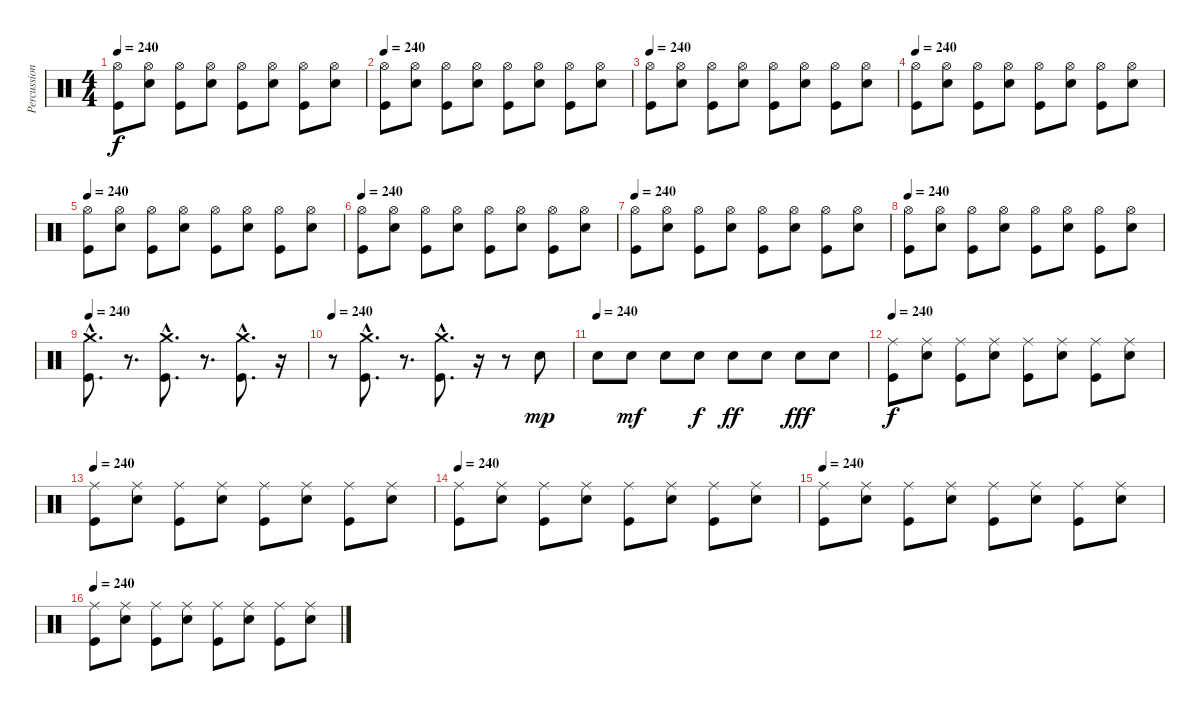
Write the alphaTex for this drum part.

\track ("Percussion" "Percussion") {instrument percussion}
\staff {score}
\articulation defaults
\ts (4 4)
\tempo 240
\clef neutral
\ks c
("Hi-Hat (open)" "Kick (hit)").8{dy f} ("Electric Snare (hit)" "Hi-Hat (open)").8 ("Hi-Hat (open)" "Kick (hit)").8 ("Electric Snare (hit)" "Hi-Hat (open)").8 ("Hi-Hat (open)" "Kick (hit)").8 ("Electric Snare (hit)" "Hi-Hat (open)").8 ("Hi-Hat (open)" "Kick (hit)").8 ("Electric Snare (hit)" "Hi-Hat (open)").8 |
\tempo 240
("Hi-Hat (open)" "Kick (hit)").8 ("Electric Snare (hit)" "Hi-Hat (open)").8 ("Hi-Hat (open)" "Kick (hit)").8 ("Electric Snare (hit)" "Hi-Hat (open)").8 ("Hi-Hat (open)" "Kick (hit)").8 ("Electric Snare (hit)" "Hi-Hat (open)").8 ("Hi-Hat (open)" "Kick (hit)").8 ("Electric Snare (hit)" "Hi-Hat (open)").8 |
\tempo 240
("Hi-Hat (open)" "Kick (hit)").8 ("Electric Snare (hit)" "Hi-Hat (open)").8 ("Hi-Hat (open)" "Kick (hit)").8 ("Electric Snare (hit)" "Hi-Hat (open)").8 ("Hi-Hat (open)" "Kick (hit)").8 ("Electric Snare (hit)" "Hi-Hat (open)").8 ("Hi-Hat (open)" "Kick (hit)").8 ("Electric Snare (hit)" "Hi-Hat (open)").8 |
\tempo 240
("Hi-Hat (open)" "Kick (hit)").8 ("Electric Snare (hit)" "Hi-Hat (open)").8 ("Hi-Hat (open)" "Kick (hit)").8 ("Electric Snare (hit)" "Hi-Hat (open)").8 ("Hi-Hat (open)" "Kick (hit)").8 ("Electric Snare (hit)" "Hi-Hat (open)").8 ("Hi-Hat (open)" "Kick (hit)").8 ("Electric Snare (hit)" "Hi-Hat (open)").8 |
\tempo 240
("Hi-Hat (open)" "Kick (hit)").8 ("Electric Snare (hit)" "Hi-Hat (open)").8 ("Hi-Hat (open)" "Kick (hit)").8 ("Electric Snare (hit)" "Hi-Hat (open)").8 ("Hi-Hat (open)" "Kick (hit)").8 ("Electric Snare (hit)" "Hi-Hat (open)").8 ("Hi-Hat (open)" "Kick (hit)").8 ("Electric Snare (hit)" "Hi-Hat (open)").8 |
\tempo 240
("Hi-Hat (open)" "Kick (hit)").8 ("Electric Snare (hit)" "Hi-Hat (open)").8 ("Hi-Hat (open)" "Kick (hit)").8 ("Electric Snare (hit)" "Hi-Hat (open)").8 ("Hi-Hat (open)" "Kick (hit)").8 ("Electric Snare (hit)" "Hi-Hat (open)").8 ("Hi-Hat (open)" "Kick (hit)").8 ("Electric Snare (hit)" "Hi-Hat (open)").8 |
\tempo 240
("Hi-Hat (open)" "Kick (hit)").8 ("Electric Snare (hit)" "Hi-Hat (open)").8 ("Hi-Hat (open)" "Kick (hit)").8 ("Electric Snare (hit)" "Hi-Hat (open)").8 ("Hi-Hat (open)" "Kick (hit)").8 ("Electric Snare (hit)" "Hi-Hat (open)").8 ("Hi-Hat (open)" "Kick (hit)").8 ("Electric Snare (hit)" "Hi-Hat (open)").8 |
\tempo 240
("Hi-Hat (open)" "Kick (hit)").8 ("Electric Snare (hit)" "Hi-Hat (open)").8 ("Hi-Hat (open)" "Kick (hit)").8 ("Electric Snare (hit)" "Hi-Hat (open)").8 ("Hi-Hat (open)" "Kick (hit)").8 ("Electric Snare (hit)" "Hi-Hat (open)").8 ("Hi-Hat (open)" "Kick (hit)").8 ("Electric Snare (hit)" "Hi-Hat (open)").8 |
\tempo 240
("Crash medium (hit)"{hac} "Kick (hit)"{hac}).8{d} r.8{d} ("Crash medium (hit)"{hac} "Kick (hit)"{hac}).8{d} r.8{d} ("Crash medium (hit)"{hac} "Kick (hit)"{hac}).8{d} r.16 |
\tempo 240
r.8 ("Crash medium (hit)"{hac} "Kick (hit)"{hac}).8{d} r.8{d} ("Crash medium (hit)"{hac} "Kick (hit)"{hac}).8{d} r.16 r.8 "Electric Snare (hit)".8{dy mp} |
\tempo (240)
"Electric Snare (hit)".8 "Electric Snare (hit)".8{dy mf} "Electric Snare (hit)".8 "Electric Snare (hit)".8{dy f} "Electric Snare (hit)".8{dy ff} "Electric Snare (hit)".8 "Electric Snare (hit)".8{dy fff} "Electric Snare (hit)".8 |
\tempo 240
("Ride (middle)" "Kick (hit)").8{dy f} ("Electric Snare (hit)" "Ride (middle)").8 ("Ride (middle)" "Kick (hit)").8 ("Electric Snare (hit)" "Ride (middle)").8 ("Ride (middle)" "Kick (hit)").8 ("Electric Snare (hit)" "Ride (middle)").8 ("Ride (middle)" "Kick (hit)").8 ("Electric Snare (hit)" "Ride (middle)").8 |
\tempo 240
("Ride (middle)" "Kick (hit)").8 ("Electric Snare (hit)" "Ride (middle)").8 ("Ride (middle)" "Kick (hit)").8 ("Electric Snare (hit)" "Ride (middle)").8 ("Ride (middle)" "Kick (hit)").8 ("Electric Snare (hit)" "Ride (middle)").8 ("Ride (middle)" "Kick (hit)").8 ("Electric Snare (hit)" "Ride (middle)").8 |
\tempo 240
("Ride (middle)" "Kick (hit)").8 ("Electric Snare (hit)" "Ride (middle)").8 ("Ride (middle)" "Kick (hit)").8 ("Electric Snare (hit)" "Ride (middle)").8 ("Ride (middle)" "Kick (hit)").8 ("Electric Snare (hit)" "Ride (middle)").8 ("Ride (middle)" "Kick (hit)").8 ("Electric Snare (hit)" "Ride (middle)").8 |
\tempo 240
("Ride (middle)" "Kick (hit)").8 ("Electric Snare (hit)" "Ride (middle)").8 ("Ride (middle)" "Kick (hit)").8 ("Electric Snare (hit)" "Ride (middle)").8 ("Ride (middle)" "Kick (hit)").8 ("Electric Snare (hit)" "Ride (middle)").8 ("Ride (middle)" "Kick (hit)").8 ("Electric Snare (hit)" "Ride (middle)").8 |
\tempo 240
("Ride (middle)" "Kick (hit)").8 ("Electric Snare (hit)" "Ride (middle)").8 ("Ride (middle)" "Kick (hit)").8 ("Electric Snare (hit)" "Ride (middle)").8 ("Ride (middle)" "Kick (hit)").8 ("Electric Snare (hit)" "Ride (middle)").8 ("Ride (middle)" "Kick (hit)").8 ("Electric Snare (hit)" "Ride (middle)").8
